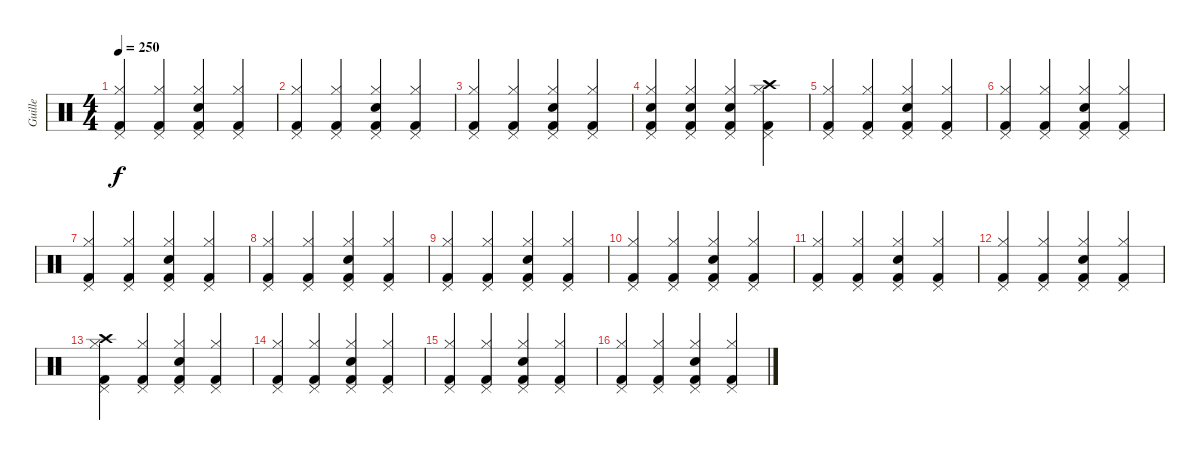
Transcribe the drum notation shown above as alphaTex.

\track ("Guille" "Guille") {instrument percussion}
\staff
\articulation defaults
\ts (4 4)
\tempo 250
\clef neutral
\ks c
("Kick (hit) 2" "Hi-Hat (closed)" "Pedal Hi-Hat (hit)").4{dy f} ("Kick (hit) 2" "Hi-Hat (closed)" "Pedal Hi-Hat (hit)").4 ("Kick (hit) 2" "Electric Snare (hit)" "Hi-Hat (closed)" "Pedal Hi-Hat (hit)").4 ("Kick (hit) 2" "Hi-Hat (closed)" "Pedal Hi-Hat (hit)").4 |
("Kick (hit) 2" "Hi-Hat (closed)" "Pedal Hi-Hat (hit)").4 ("Kick (hit) 2" "Hi-Hat (closed)" "Pedal Hi-Hat (hit)").4 ("Kick (hit) 2" "Electric Snare (hit)" "Hi-Hat (closed)" "Pedal Hi-Hat (hit)").4 ("Kick (hit) 2" "Hi-Hat (closed)" "Pedal Hi-Hat (hit)").4 |
("Kick (hit) 2" "Hi-Hat (closed)" "Pedal Hi-Hat (hit)").4 ("Kick (hit) 2" "Hi-Hat (closed)" "Pedal Hi-Hat (hit)").4 ("Kick (hit) 2" "Electric Snare (hit)" "Hi-Hat (closed)" "Pedal Hi-Hat (hit)").4 ("Kick (hit) 2" "Hi-Hat (closed)" "Pedal Hi-Hat (hit)").4 |
("Kick (hit) 2" "Electric Snare (hit)" "Hi-Hat (closed)" "Pedal Hi-Hat (hit)").4 ("Kick (hit) 2" "Electric Snare (hit)" "Hi-Hat (closed)" "Pedal Hi-Hat (hit)").4 ("Kick (hit) 2" "Electric Snare (hit)" "Hi-Hat (closed)" "Pedal Hi-Hat (hit)").4 ("Kick (hit) 2" "Hi-Hat (closed)" "Pedal Hi-Hat (hit)" "Crash high (hit)").4 |
("Kick (hit) 2" "Hi-Hat (closed)" "Pedal Hi-Hat (hit)").4 ("Kick (hit) 2" "Hi-Hat (closed)" "Pedal Hi-Hat (hit)").4 ("Kick (hit) 2" "Electric Snare (hit)" "Hi-Hat (closed)" "Pedal Hi-Hat (hit)").4 ("Kick (hit) 2" "Hi-Hat (closed)" "Pedal Hi-Hat (hit)").4 |
("Kick (hit) 2" "Hi-Hat (closed)" "Pedal Hi-Hat (hit)").4 ("Kick (hit) 2" "Hi-Hat (closed)" "Pedal Hi-Hat (hit)").4 ("Kick (hit) 2" "Electric Snare (hit)" "Hi-Hat (closed)" "Pedal Hi-Hat (hit)").4 ("Kick (hit) 2" "Hi-Hat (closed)" "Pedal Hi-Hat (hit)").4 |
("Kick (hit) 2" "Hi-Hat (closed)" "Pedal Hi-Hat (hit)").4 ("Kick (hit) 2" "Hi-Hat (closed)" "Pedal Hi-Hat (hit)").4 ("Kick (hit) 2" "Electric Snare (hit)" "Hi-Hat (closed)" "Pedal Hi-Hat (hit)").4 ("Kick (hit) 2" "Hi-Hat (closed)" "Pedal Hi-Hat (hit)").4 |
("Kick (hit) 2" "Hi-Hat (closed)" "Pedal Hi-Hat (hit)").4 ("Kick (hit) 2" "Hi-Hat (closed)" "Pedal Hi-Hat (hit)").4 ("Kick (hit) 2" "Electric Snare (hit)" "Hi-Hat (closed)" "Pedal Hi-Hat (hit)").4 ("Kick (hit) 2" "Hi-Hat (closed)" "Pedal Hi-Hat (hit)").4 |
("Kick (hit) 2" "Hi-Hat (closed)" "Pedal Hi-Hat (hit)").4 ("Kick (hit) 2" "Hi-Hat (closed)" "Pedal Hi-Hat (hit)").4 ("Kick (hit) 2" "Electric Snare (hit)" "Hi-Hat (closed)" "Pedal Hi-Hat (hit)").4 ("Kick (hit) 2" "Hi-Hat (closed)" "Pedal Hi-Hat (hit)").4 |
("Kick (hit) 2" "Hi-Hat (closed)" "Pedal Hi-Hat (hit)").4 ("Kick (hit) 2" "Hi-Hat (closed)" "Pedal Hi-Hat (hit)").4 ("Kick (hit) 2" "Electric Snare (hit)" "Hi-Hat (closed)" "Pedal Hi-Hat (hit)").4 ("Kick (hit) 2" "Hi-Hat (closed)" "Pedal Hi-Hat (hit)").4 |
("Kick (hit) 2" "Hi-Hat (closed)" "Pedal Hi-Hat (hit)").4 ("Kick (hit) 2" "Hi-Hat (closed)" "Pedal Hi-Hat (hit)").4 ("Kick (hit) 2" "Electric Snare (hit)" "Hi-Hat (closed)" "Pedal Hi-Hat (hit)").4 ("Kick (hit) 2" "Hi-Hat (closed)" "Pedal Hi-Hat (hit)").4 |
("Kick (hit) 2" "Hi-Hat (closed)" "Pedal Hi-Hat (hit)").4 ("Kick (hit) 2" "Hi-Hat (closed)" "Pedal Hi-Hat (hit)").4 ("Kick (hit) 2" "Electric Snare (hit)" "Hi-Hat (closed)" "Pedal Hi-Hat (hit)").4 ("Kick (hit) 2" "Hi-Hat (closed)" "Pedal Hi-Hat (hit)").4 |
("Kick (hit) 2" "Hi-Hat (closed)" "Pedal Hi-Hat (hit)" "Crash high (hit)").4 ("Kick (hit) 2" "Hi-Hat (closed)" "Pedal Hi-Hat (hit)").4 ("Kick (hit) 2" "Electric Snare (hit)" "Hi-Hat (closed)" "Pedal Hi-Hat (hit)").4 ("Kick (hit) 2" "Hi-Hat (closed)" "Pedal Hi-Hat (hit)").4 |
("Kick (hit) 2" "Hi-Hat (closed)" "Pedal Hi-Hat (hit)").4 ("Kick (hit) 2" "Hi-Hat (closed)" "Pedal Hi-Hat (hit)").4 ("Kick (hit) 2" "Electric Snare (hit)" "Hi-Hat (closed)" "Pedal Hi-Hat (hit)").4 ("Kick (hit) 2" "Hi-Hat (closed)" "Pedal Hi-Hat (hit)").4 |
("Kick (hit) 2" "Hi-Hat (closed)" "Pedal Hi-Hat (hit)").4 ("Kick (hit) 2" "Hi-Hat (closed)" "Pedal Hi-Hat (hit)").4 ("Kick (hit) 2" "Electric Snare (hit)" "Hi-Hat (closed)" "Pedal Hi-Hat (hit)").4 ("Kick (hit) 2" "Hi-Hat (closed)" "Pedal Hi-Hat (hit)").4 |
("Kick (hit) 2" "Hi-Hat (closed)" "Pedal Hi-Hat (hit)").4 ("Kick (hit) 2" "Hi-Hat (closed)" "Pedal Hi-Hat (hit)").4 ("Kick (hit) 2" "Electric Snare (hit)" "Hi-Hat (closed)" "Pedal Hi-Hat (hit)").4 ("Kick (hit) 2" "Hi-Hat (closed)" "Pedal Hi-Hat (hit)").4
